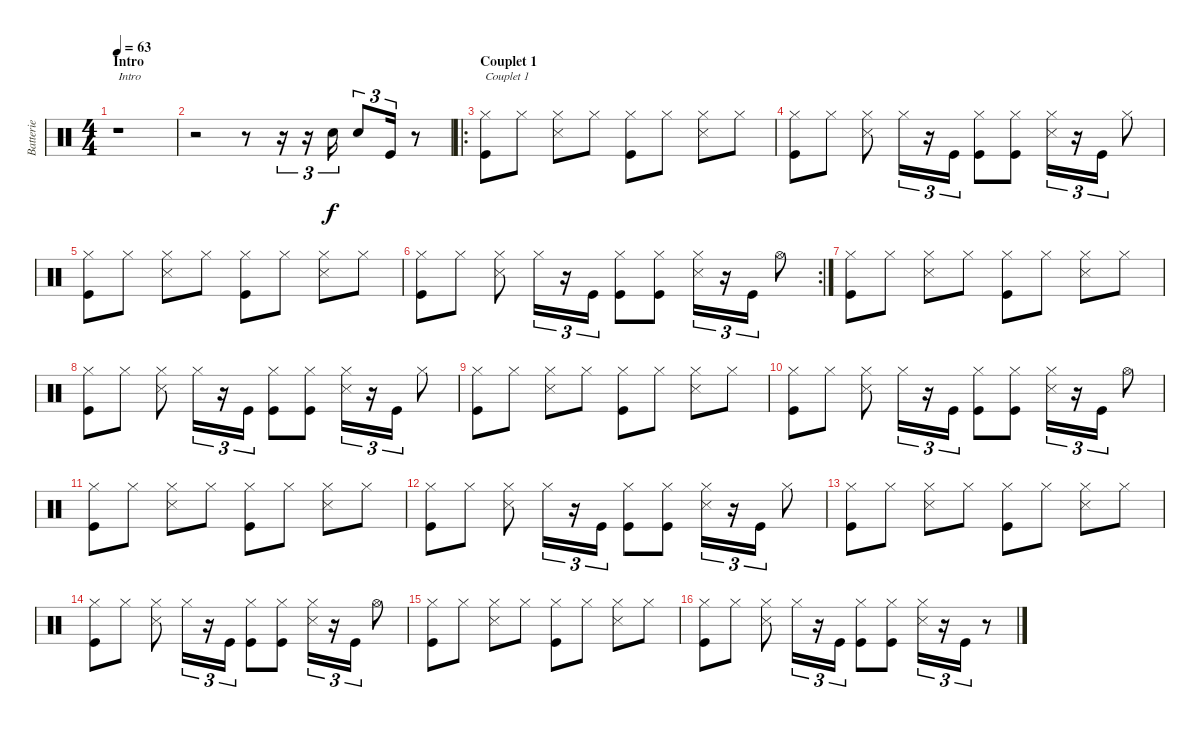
\track ("Batterie" "Batterie") {instrument percussion}
\staff {score}
\articulation defaults
\ts (4 4)
\section ("" "Intro")
\tempo 63
\clef neutral
\ks c
r.1{txt "Intro" dy f} |
r.2 r.8 r.16{tu (3 2)} r.16{tu (3 2)} "Electric Snare (hit)".16{tu (3 2)} "Electric Snare (hit)".8{tu (3 2)} "Kick (hit)".16{tu (3 2)} r.8 |
\ro
\section ("" "Couplet 1")
("Hi-Hat (closed)" "Kick (hit)").8{txt "Couplet 1"} "Hi-Hat (closed)".8 ("Snare (side stick) 3" "Hi-Hat (closed)").8 "Hi-Hat (closed)".8 ("Hi-Hat (closed)" "Kick (hit)").8 "Hi-Hat (closed)".8 ("Snare (side stick) 3" "Hi-Hat (closed)").8 "Hi-Hat (closed)".8 |
("Hi-Hat (closed)" "Kick (hit)").8 "Hi-Hat (closed)".8 ("Snare (side stick) 3" "Hi-Hat (closed)").8 "Hi-Hat (closed)".16{tu (3 2)} r.16{tu (3 2)} "Kick (hit)".16{tu (3 2)} ("Hi-Hat (closed)" "Kick (hit)").8 ("Hi-Hat (closed)" "Kick (hit)").8 ("Snare (side stick) 3" "Hi-Hat (closed)").16{tu (3 2)} r.16{tu (3 2)} "Kick (hit)".16{tu (3 2)} "Hi-Hat (closed)".8 |
("Hi-Hat (closed)" "Kick (hit)").8 "Hi-Hat (closed)".8 ("Snare (side stick) 3" "Hi-Hat (closed)").8 "Hi-Hat (closed)".8 ("Hi-Hat (closed)" "Kick (hit)").8 "Hi-Hat (closed)".8 ("Snare (side stick) 3" "Hi-Hat (closed)").8 "Hi-Hat (closed)".8 |
\rc 2
("Hi-Hat (closed)" "Kick (hit)").8 "Hi-Hat (closed)".8 ("Snare (side stick) 3" "Hi-Hat (closed)").8 "Hi-Hat (closed)".16{tu (3 2)} r.16{tu (3 2)} "Kick (hit)".16{tu (3 2)} ("Hi-Hat (closed)" "Kick (hit)").8 ("Hi-Hat (closed)" "Kick (hit)").8 ("Snare (side stick) 3" "Hi-Hat (closed)").16{tu (3 2)} r.16{tu (3 2)} "Kick (hit)".16{tu (3 2)} "Hi-Hat (open)".8 |
("Hi-Hat (closed)" "Kick (hit)").8 "Hi-Hat (closed)".8 ("Snare (side stick) 3" "Hi-Hat (closed)").8 "Hi-Hat (closed)".8 ("Hi-Hat (closed)" "Kick (hit)").8 "Hi-Hat (closed)".8 ("Snare (side stick) 3" "Hi-Hat (closed)").8 "Hi-Hat (closed)".8 |
("Hi-Hat (closed)" "Kick (hit)").8 "Hi-Hat (closed)".8 ("Snare (side stick) 3" "Hi-Hat (closed)").8 "Hi-Hat (closed)".16{tu (3 2)} r.16{tu (3 2)} "Kick (hit)".16{tu (3 2)} ("Hi-Hat (closed)" "Kick (hit)").8 ("Hi-Hat (closed)" "Kick (hit)").8 ("Snare (side stick) 3" "Hi-Hat (closed)").16{tu (3 2)} r.16{tu (3 2)} "Kick (hit)".16{tu (3 2)} "Hi-Hat (closed)".8 |
("Hi-Hat (closed)" "Kick (hit)").8 "Hi-Hat (closed)".8 ("Snare (side stick) 3" "Hi-Hat (closed)").8 "Hi-Hat (closed)".8 ("Hi-Hat (closed)" "Kick (hit)").8 "Hi-Hat (closed)".8 ("Snare (side stick) 3" "Hi-Hat (closed)").8 "Hi-Hat (closed)".8 |
("Hi-Hat (closed)" "Kick (hit)").8 "Hi-Hat (closed)".8 ("Snare (side stick) 3" "Hi-Hat (closed)").8 "Hi-Hat (closed)".16{tu (3 2)} r.16{tu (3 2)} "Kick (hit)".16{tu (3 2)} ("Hi-Hat (closed)" "Kick (hit)").8 ("Hi-Hat (closed)" "Kick (hit)").8 ("Snare (side stick) 3" "Hi-Hat (closed)").16{tu (3 2)} r.16{tu (3 2)} "Kick (hit)".16{tu (3 2)} "Hi-Hat (open)".8 |
("Hi-Hat (closed)" "Kick (hit)").8 "Hi-Hat (closed)".8 ("Snare (side stick) 3" "Hi-Hat (closed)").8 "Hi-Hat (closed)".8 ("Hi-Hat (closed)" "Kick (hit)").8 "Hi-Hat (closed)".8 ("Snare (side stick) 3" "Hi-Hat (closed)").8 "Hi-Hat (closed)".8 |
("Hi-Hat (closed)" "Kick (hit)").8 "Hi-Hat (closed)".8 ("Snare (side stick) 3" "Hi-Hat (closed)").8 "Hi-Hat (closed)".16{tu (3 2)} r.16{tu (3 2)} "Kick (hit)".16{tu (3 2)} ("Hi-Hat (closed)" "Kick (hit)").8 ("Hi-Hat (closed)" "Kick (hit)").8 ("Snare (side stick) 3" "Hi-Hat (closed)").16{tu (3 2)} r.16{tu (3 2)} "Kick (hit)".16{tu (3 2)} "Hi-Hat (closed)".8 |
("Hi-Hat (closed)" "Kick (hit)").8 "Hi-Hat (closed)".8 ("Snare (side stick) 3" "Hi-Hat (closed)").8 "Hi-Hat (closed)".8 ("Hi-Hat (closed)" "Kick (hit)").8 "Hi-Hat (closed)".8 ("Snare (side stick) 3" "Hi-Hat (closed)").8 "Hi-Hat (closed)".8 |
("Hi-Hat (closed)" "Kick (hit)").8 "Hi-Hat (closed)".8 ("Snare (side stick) 3" "Hi-Hat (closed)").8 "Hi-Hat (closed)".16{tu (3 2)} r.16{tu (3 2)} "Kick (hit)".16{tu (3 2)} ("Hi-Hat (closed)" "Kick (hit)").8 ("Hi-Hat (closed)" "Kick (hit)").8 ("Snare (side stick) 3" "Hi-Hat (closed)").16{tu (3 2)} r.16{tu (3 2)} "Kick (hit)".16{tu (3 2)} "Hi-Hat (open)".8 |
("Hi-Hat (closed)" "Kick (hit)").8 "Hi-Hat (closed)".8 ("Snare (side stick) 3" "Hi-Hat (closed)").8 "Hi-Hat (closed)".8 ("Hi-Hat (closed)" "Kick (hit)").8 "Hi-Hat (closed)".8 ("Snare (side stick) 3" "Hi-Hat (closed)").8 "Hi-Hat (closed)".8 |
("Hi-Hat (closed)" "Kick (hit)").8 "Hi-Hat (closed)".8 ("Snare (side stick) 3" "Hi-Hat (closed)").8 "Hi-Hat (closed)".16{tu (3 2)} r.16{tu (3 2)} "Kick (hit)".16{tu (3 2)} ("Hi-Hat (closed)" "Kick (hit)").8 ("Hi-Hat (closed)" "Kick (hit)").8 ("Snare (side stick) 3" "Hi-Hat (closed)").16{tu (3 2)} r.16{tu (3 2)} "Kick (hit)".16{tu (3 2)} r.8
